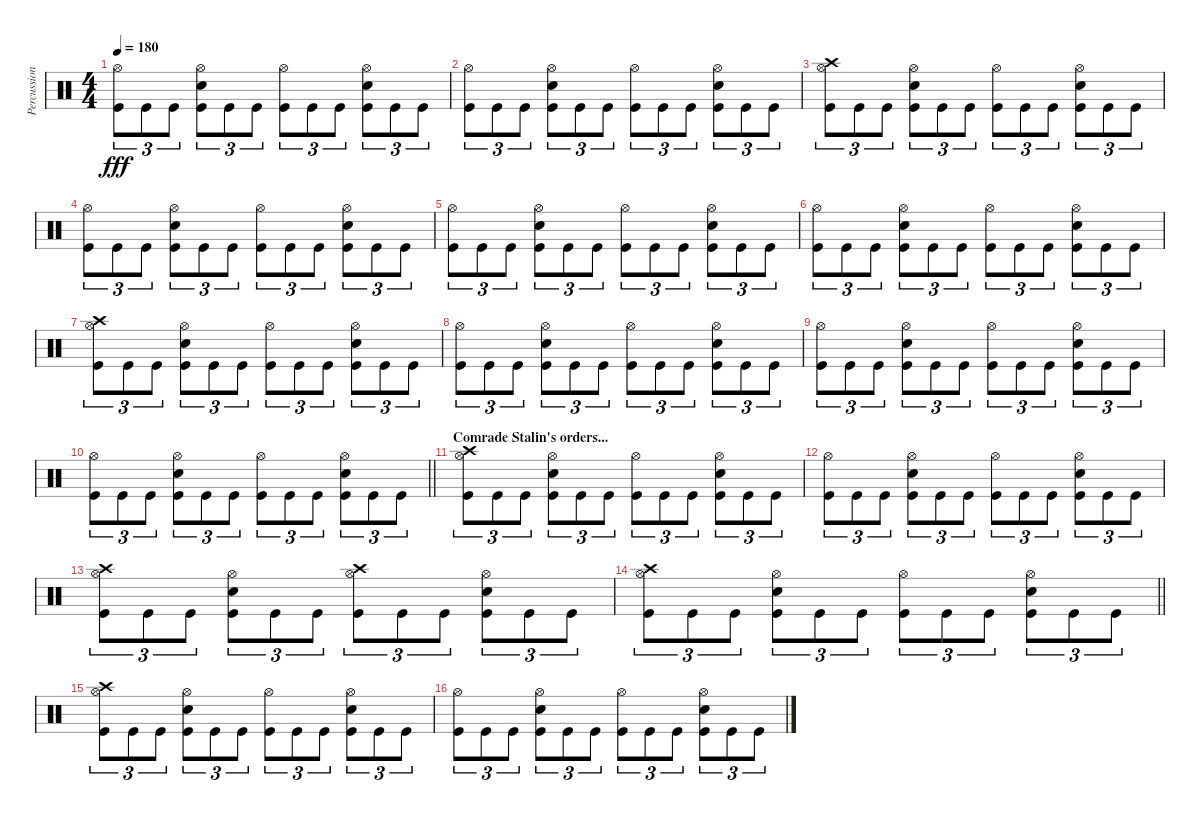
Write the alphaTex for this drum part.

\track ("Percussion" "Percussion") {instrument percussion}
\staff {score}
\articulation defaults
\ts (4 4)
\tempo 180
\clef neutral
\ks c
("Hi-Hat (open)" "Kick (hit)").8{tu (3 2) dy fff} "Kick (hit)".8{tu (3 2)} "Kick (hit)".8{tu (3 2)} ("Hi-Hat (open)" "Electric Snare (hit)" "Kick (hit)").8{tu (3 2)} "Kick (hit)".8{tu (3 2)} "Kick (hit)".8{tu (3 2)} ("Hi-Hat (open)" "Kick (hit)").8{tu (3 2)} "Kick (hit)".8{tu (3 2)} "Kick (hit)".8{tu (3 2)} ("Hi-Hat (open)" "Electric Snare (hit)" "Kick (hit)").8{tu (3 2)} "Kick (hit)".8{tu (3 2)} "Kick (hit)".8{tu (3 2)} |
("Hi-Hat (open)" "Kick (hit)").8{tu (3 2)} "Kick (hit)".8{tu (3 2)} "Kick (hit)".8{tu (3 2)} ("Hi-Hat (open)" "Electric Snare (hit)" "Kick (hit)").8{tu (3 2)} "Kick (hit)".8{tu (3 2)} "Kick (hit)".8{tu (3 2)} ("Hi-Hat (open)" "Kick (hit)").8{tu (3 2)} "Kick (hit)".8{tu (3 2)} "Kick (hit)".8{tu (3 2)} ("Hi-Hat (open)" "Electric Snare (hit)" "Kick (hit)").8{tu (3 2)} "Kick (hit)".8{tu (3 2)} "Kick (hit)".8{tu (3 2)} |
("Crash high (hit)" "Hi-Hat (open)" "Kick (hit)").8{tu (3 2)} "Kick (hit)".8{tu (3 2)} "Kick (hit)".8{tu (3 2)} ("Hi-Hat (open)" "Electric Snare (hit)" "Kick (hit)").8{tu (3 2)} "Kick (hit)".8{tu (3 2)} "Kick (hit)".8{tu (3 2)} ("Hi-Hat (open)" "Kick (hit)").8{tu (3 2)} "Kick (hit)".8{tu (3 2)} "Kick (hit)".8{tu (3 2)} ("Hi-Hat (open)" "Electric Snare (hit)" "Kick (hit)").8{tu (3 2)} "Kick (hit)".8{tu (3 2)} "Kick (hit)".8{tu (3 2)} |
("Hi-Hat (open)" "Kick (hit)").8{tu (3 2)} "Kick (hit)".8{tu (3 2)} "Kick (hit)".8{tu (3 2)} ("Hi-Hat (open)" "Electric Snare (hit)" "Kick (hit)").8{tu (3 2)} "Kick (hit)".8{tu (3 2)} "Kick (hit)".8{tu (3 2)} ("Hi-Hat (open)" "Kick (hit)").8{tu (3 2)} "Kick (hit)".8{tu (3 2)} "Kick (hit)".8{tu (3 2)} ("Hi-Hat (open)" "Electric Snare (hit)" "Kick (hit)").8{tu (3 2)} "Kick (hit)".8{tu (3 2)} "Kick (hit)".8{tu (3 2)} |
("Hi-Hat (open)" "Kick (hit)").8{tu (3 2)} "Kick (hit)".8{tu (3 2)} "Kick (hit)".8{tu (3 2)} ("Hi-Hat (open)" "Electric Snare (hit)" "Kick (hit)").8{tu (3 2)} "Kick (hit)".8{tu (3 2)} "Kick (hit)".8{tu (3 2)} ("Hi-Hat (open)" "Kick (hit)").8{tu (3 2)} "Kick (hit)".8{tu (3 2)} "Kick (hit)".8{tu (3 2)} ("Hi-Hat (open)" "Electric Snare (hit)" "Kick (hit)").8{tu (3 2)} "Kick (hit)".8{tu (3 2)} "Kick (hit)".8{tu (3 2)} |
("Hi-Hat (open)" "Kick (hit)").8{tu (3 2)} "Kick (hit)".8{tu (3 2)} "Kick (hit)".8{tu (3 2)} ("Hi-Hat (open)" "Electric Snare (hit)" "Kick (hit)").8{tu (3 2)} "Kick (hit)".8{tu (3 2)} "Kick (hit)".8{tu (3 2)} ("Hi-Hat (open)" "Kick (hit)").8{tu (3 2)} "Kick (hit)".8{tu (3 2)} "Kick (hit)".8{tu (3 2)} ("Hi-Hat (open)" "Electric Snare (hit)" "Kick (hit)").8{tu (3 2)} "Kick (hit)".8{tu (3 2)} "Kick (hit)".8{tu (3 2)} |
("Crash high (hit)" "Hi-Hat (open)" "Kick (hit)").8{tu (3 2)} "Kick (hit)".8{tu (3 2)} "Kick (hit)".8{tu (3 2)} ("Hi-Hat (open)" "Electric Snare (hit)" "Kick (hit)").8{tu (3 2)} "Kick (hit)".8{tu (3 2)} "Kick (hit)".8{tu (3 2)} ("Hi-Hat (open)" "Kick (hit)").8{tu (3 2)} "Kick (hit)".8{tu (3 2)} "Kick (hit)".8{tu (3 2)} ("Hi-Hat (open)" "Electric Snare (hit)" "Kick (hit)").8{tu (3 2)} "Kick (hit)".8{tu (3 2)} "Kick (hit)".8{tu (3 2)} |
("Hi-Hat (open)" "Kick (hit)").8{tu (3 2)} "Kick (hit)".8{tu (3 2)} "Kick (hit)".8{tu (3 2)} ("Hi-Hat (open)" "Electric Snare (hit)" "Kick (hit)").8{tu (3 2)} "Kick (hit)".8{tu (3 2)} "Kick (hit)".8{tu (3 2)} ("Hi-Hat (open)" "Kick (hit)").8{tu (3 2)} "Kick (hit)".8{tu (3 2)} "Kick (hit)".8{tu (3 2)} ("Hi-Hat (open)" "Electric Snare (hit)" "Kick (hit)").8{tu (3 2)} "Kick (hit)".8{tu (3 2)} "Kick (hit)".8{tu (3 2)} |
("Hi-Hat (open)" "Kick (hit)").8{tu (3 2)} "Kick (hit)".8{tu (3 2)} "Kick (hit)".8{tu (3 2)} ("Hi-Hat (open)" "Electric Snare (hit)" "Kick (hit)").8{tu (3 2)} "Kick (hit)".8{tu (3 2)} "Kick (hit)".8{tu (3 2)} ("Hi-Hat (open)" "Kick (hit)").8{tu (3 2)} "Kick (hit)".8{tu (3 2)} "Kick (hit)".8{tu (3 2)} ("Hi-Hat (open)" "Electric Snare (hit)" "Kick (hit)").8{tu (3 2)} "Kick (hit)".8{tu (3 2)} "Kick (hit)".8{tu (3 2)} |
\barLineRight lightlight
("Hi-Hat (open)" "Kick (hit)").8{tu (3 2)} "Kick (hit)".8{tu (3 2)} "Kick (hit)".8{tu (3 2)} ("Hi-Hat (open)" "Electric Snare (hit)" "Kick (hit)").8{tu (3 2)} "Kick (hit)".8{tu (3 2)} "Kick (hit)".8{tu (3 2)} ("Hi-Hat (open)" "Kick (hit)").8{tu (3 2)} "Kick (hit)".8{tu (3 2)} "Kick (hit)".8{tu (3 2)} ("Hi-Hat (open)" "Electric Snare (hit)" "Kick (hit)").8{tu (3 2)} "Kick (hit)".8{tu (3 2)} "Kick (hit)".8{tu (3 2)} |
\section ("" "Comrade Stalin's orders...")
("Crash high (hit)" "Hi-Hat (open)" "Kick (hit)").8{tu (3 2)} "Kick (hit)".8{tu (3 2)} "Kick (hit)".8{tu (3 2)} ("Hi-Hat (open)" "Electric Snare (hit)" "Kick (hit)").8{tu (3 2)} "Kick (hit)".8{tu (3 2)} "Kick (hit)".8{tu (3 2)} ("Hi-Hat (open)" "Kick (hit)").8{tu (3 2)} "Kick (hit)".8{tu (3 2)} "Kick (hit)".8{tu (3 2)} ("Hi-Hat (open)" "Electric Snare (hit)" "Kick (hit)").8{tu (3 2)} "Kick (hit)".8{tu (3 2)} "Kick (hit)".8{tu (3 2)} |
("Hi-Hat (open)" "Kick (hit)").8{tu (3 2)} "Kick (hit)".8{tu (3 2)} "Kick (hit)".8{tu (3 2)} ("Hi-Hat (open)" "Electric Snare (hit)" "Kick (hit)").8{tu (3 2)} "Kick (hit)".8{tu (3 2)} "Kick (hit)".8{tu (3 2)} ("Hi-Hat (open)" "Kick (hit)").8{tu (3 2)} "Kick (hit)".8{tu (3 2)} "Kick (hit)".8{tu (3 2)} ("Hi-Hat (open)" "Electric Snare (hit)" "Kick (hit)").8{tu (3 2)} "Kick (hit)".8{tu (3 2)} "Kick (hit)".8{tu (3 2)} |
("Crash high (hit)" "Hi-Hat (open)" "Kick (hit)").8{tu (3 2)} "Kick (hit)".8{tu (3 2)} "Kick (hit)".8{tu (3 2)} ("Hi-Hat (open)" "Electric Snare (hit)" "Kick (hit)").8{tu (3 2)} "Kick (hit)".8{tu (3 2)} "Kick (hit)".8{tu (3 2)} ("Crash high (hit)" "Hi-Hat (open)" "Kick (hit)").8{tu (3 2)} "Kick (hit)".8{tu (3 2)} "Kick (hit)".8{tu (3 2)} ("Hi-Hat (open)" "Electric Snare (hit)" "Kick (hit)").8{tu (3 2)} "Kick (hit)".8{tu (3 2)} "Kick (hit)".8{tu (3 2)} |
\barLineRight lightlight
("Crash high (hit)" "Hi-Hat (open)" "Kick (hit)").8{tu (3 2)} "Kick (hit)".8{tu (3 2)} "Kick (hit)".8{tu (3 2)} ("Hi-Hat (open)" "Electric Snare (hit)" "Kick (hit)").8{tu (3 2)} "Kick (hit)".8{tu (3 2)} "Kick (hit)".8{tu (3 2)} ("Hi-Hat (open)" "Kick (hit)").8{tu (3 2)} "Kick (hit)".8{tu (3 2)} "Kick (hit)".8{tu (3 2)} ("Hi-Hat (open)" "Electric Snare (hit)" "Kick (hit)").8{tu (3 2)} "Kick (hit)".8{tu (3 2)} "Kick (hit)".8{tu (3 2)} |
("Crash high (hit)" "Hi-Hat (open)" "Kick (hit)").8{tu (3 2)} "Kick (hit)".8{tu (3 2)} "Kick (hit)".8{tu (3 2)} ("Hi-Hat (open)" "Electric Snare (hit)" "Kick (hit)").8{tu (3 2)} "Kick (hit)".8{tu (3 2)} "Kick (hit)".8{tu (3 2)} ("Hi-Hat (open)" "Kick (hit)").8{tu (3 2)} "Kick (hit)".8{tu (3 2)} "Kick (hit)".8{tu (3 2)} ("Hi-Hat (open)" "Electric Snare (hit)" "Kick (hit)").8{tu (3 2)} "Kick (hit)".8{tu (3 2)} "Kick (hit)".8{tu (3 2)} |
("Hi-Hat (open)" "Kick (hit)").8{tu (3 2)} "Kick (hit)".8{tu (3 2)} "Kick (hit)".8{tu (3 2)} ("Hi-Hat (open)" "Electric Snare (hit)" "Kick (hit)").8{tu (3 2)} "Kick (hit)".8{tu (3 2)} "Kick (hit)".8{tu (3 2)} ("Hi-Hat (open)" "Kick (hit)").8{tu (3 2)} "Kick (hit)".8{tu (3 2)} "Kick (hit)".8{tu (3 2)} ("Hi-Hat (open)" "Electric Snare (hit)" "Kick (hit)").8{tu (3 2)} "Kick (hit)".8{tu (3 2)} "Kick (hit)".8{tu (3 2)}
